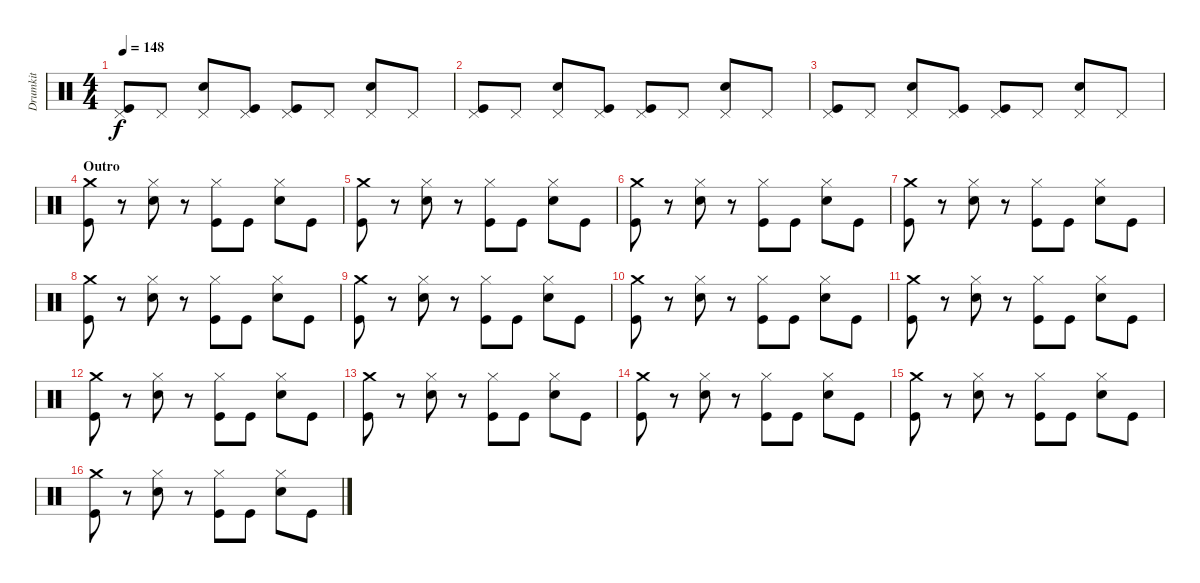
\track ("Drumkit" "Drumkit") {instrument percussion}
\staff {score}
\articulation defaults
\ts (4 4)
\tempo 148
\clef neutral
\ks c
("Pedal Hi-Hat (hit)" "Kick (hit)").8{dy f} "Pedal Hi-Hat (hit)".8 ("Pedal Hi-Hat (hit)" "Snare (hit) 2").8 ("Pedal Hi-Hat (hit)" "Kick (hit)").8 ("Pedal Hi-Hat (hit)" "Kick (hit)").8 "Pedal Hi-Hat (hit)".8 ("Pedal Hi-Hat (hit)" "Snare (hit) 2").8 "Pedal Hi-Hat (hit)".8 |
("Pedal Hi-Hat (hit)" "Kick (hit)").8 "Pedal Hi-Hat (hit)".8 ("Pedal Hi-Hat (hit)" "Snare (hit) 2").8 ("Pedal Hi-Hat (hit)" "Kick (hit)").8 ("Pedal Hi-Hat (hit)" "Kick (hit)").8 "Pedal Hi-Hat (hit)".8 ("Pedal Hi-Hat (hit)" "Snare (hit) 2").8 "Pedal Hi-Hat (hit)".8 |
("Pedal Hi-Hat (hit)" "Kick (hit)").8 "Pedal Hi-Hat (hit)".8 ("Pedal Hi-Hat (hit)" "Snare (hit) 2").8 ("Pedal Hi-Hat (hit)" "Kick (hit)").8 ("Pedal Hi-Hat (hit)" "Kick (hit)").8 "Pedal Hi-Hat (hit)".8 ("Pedal Hi-Hat (hit)" "Snare (hit) 2").8 "Pedal Hi-Hat (hit)".8 |
\section ("" "Outro")
("Crash medium (hit)" "Kick (hit)").8 r.8 ("Hi-Hat (closed)" "Snare (hit) 2").8 r.8 ("Hi-Hat (closed)" "Kick (hit)").8 "Kick (hit)".8 ("Hi-Hat (closed)" "Snare (hit) 2").8 "Kick (hit)".8 |
("Crash medium (hit)" "Kick (hit)").8 r.8 ("Hi-Hat (closed)" "Snare (hit) 2").8 r.8 ("Hi-Hat (closed)" "Kick (hit)").8 "Kick (hit)".8 ("Hi-Hat (closed)" "Snare (hit) 2").8 "Kick (hit)".8 |
("Crash medium (hit)" "Kick (hit)").8 r.8 ("Hi-Hat (closed)" "Snare (hit) 2").8 r.8 ("Hi-Hat (closed)" "Kick (hit)").8 "Kick (hit)".8 ("Hi-Hat (closed)" "Snare (hit) 2").8 "Kick (hit)".8 |
("Crash medium (hit)" "Kick (hit)").8 r.8 ("Hi-Hat (closed)" "Snare (hit) 2").8 r.8 ("Hi-Hat (closed)" "Kick (hit)").8 "Kick (hit)".8 ("Hi-Hat (closed)" "Snare (hit) 2").8 "Kick (hit)".8 |
("Crash medium (hit)" "Kick (hit)").8 r.8 ("Hi-Hat (closed)" "Snare (hit) 2").8 r.8 ("Hi-Hat (closed)" "Kick (hit)").8 "Kick (hit)".8 ("Hi-Hat (closed)" "Snare (hit) 2").8 "Kick (hit)".8 |
("Crash medium (hit)" "Kick (hit)").8 r.8 ("Hi-Hat (closed)" "Snare (hit) 2").8 r.8 ("Hi-Hat (closed)" "Kick (hit)").8 "Kick (hit)".8 ("Hi-Hat (closed)" "Snare (hit) 2").8 "Kick (hit)".8 |
("Crash medium (hit)" "Kick (hit)").8 r.8 ("Hi-Hat (closed)" "Snare (hit) 2").8 r.8 ("Hi-Hat (closed)" "Kick (hit)").8 "Kick (hit)".8 ("Hi-Hat (closed)" "Snare (hit) 2").8 "Kick (hit)".8 |
("Crash medium (hit)" "Kick (hit)").8 r.8 ("Hi-Hat (closed)" "Snare (hit) 2").8 r.8 ("Hi-Hat (closed)" "Kick (hit)").8 "Kick (hit)".8 ("Hi-Hat (closed)" "Snare (hit) 2").8 "Kick (hit)".8 |
("Crash medium (hit)" "Kick (hit)").8 r.8 ("Hi-Hat (closed)" "Snare (hit) 2").8 r.8 ("Hi-Hat (closed)" "Kick (hit)").8 "Kick (hit)".8 ("Hi-Hat (closed)" "Snare (hit) 2").8 "Kick (hit)".8 |
("Crash medium (hit)" "Kick (hit)").8 r.8 ("Hi-Hat (closed)" "Snare (hit) 2").8 r.8 ("Hi-Hat (closed)" "Kick (hit)").8 "Kick (hit)".8 ("Hi-Hat (closed)" "Snare (hit) 2").8 "Kick (hit)".8 |
("Crash medium (hit)" "Kick (hit)").8 r.8 ("Hi-Hat (closed)" "Snare (hit) 2").8 r.8 ("Hi-Hat (closed)" "Kick (hit)").8 "Kick (hit)".8 ("Hi-Hat (closed)" "Snare (hit) 2").8 "Kick (hit)".8 |
("Crash medium (hit)" "Kick (hit)").8 r.8 ("Hi-Hat (closed)" "Snare (hit) 2").8 r.8 ("Hi-Hat (closed)" "Kick (hit)").8 "Kick (hit)".8 ("Hi-Hat (closed)" "Snare (hit) 2").8 "Kick (hit)".8 |
("Crash medium (hit)" "Kick (hit)").8 r.8 ("Hi-Hat (closed)" "Snare (hit) 2").8 r.8 ("Hi-Hat (closed)" "Kick (hit)").8 "Kick (hit)".8 ("Hi-Hat (closed)" "Snare (hit) 2").8 "Kick (hit)".8
